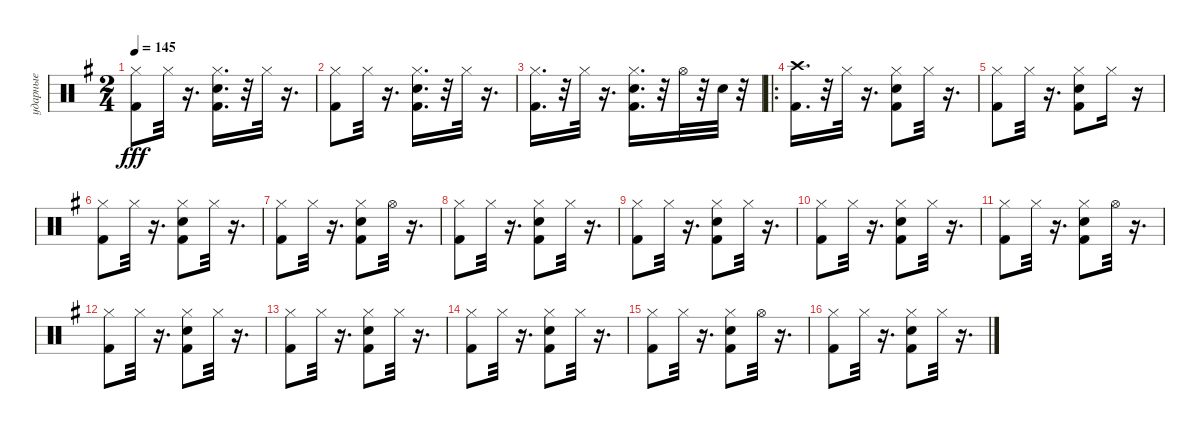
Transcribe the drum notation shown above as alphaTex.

\track ("ударные" "ударные") {instrument percussion}
\staff {score}
\articulation defaults
\ts (2 4)
\tempo 145
\clef neutral
\ks eminor
("Kick (hit) 2" "Hi-Hat (closed)").8{dy fff} "Hi-Hat (closed)".32 r.16{d} ("Kick (hit) 2" "Hi-Hat (closed)" "Snare (hit) 2").16{d} r.32 "Hi-Hat (closed)".32 r.16{d} |
("Kick (hit) 2" "Hi-Hat (closed)").8 "Hi-Hat (closed)".32 r.16{d} ("Kick (hit) 2" "Hi-Hat (closed)" "Snare (hit) 2").16{d} r.32 "Hi-Hat (closed)".32 r.16{d} |
("Kick (hit) 2" "Hi-Hat (closed)").16{d} r.32 "Hi-Hat (closed)".32 r.16{d} ("Hi-Hat (closed)" "Snare (hit) 2" "Kick (hit) 2").16{d} r.32 "Hi-Hat (open)".32 r.32 "Snare (hit) 2".32 r.32 |
\ro
("Kick (hit) 2" "Crash high (hit)").16{d} r.32 "Hi-Hat (closed)".32 r.16{d} ("Kick (hit) 2" "Snare (hit) 2" "Hi-Hat (closed)").8 "Hi-Hat (closed)".32 r.16{d} |
("Kick (hit) 2" "Hi-Hat (closed)").8 "Hi-Hat (closed)".32 r.16{d} ("Kick (hit) 2" "Hi-Hat (closed)" "Snare (hit) 2").8 "Hi-Hat (closed)".16 r.16 |
("Kick (hit) 2" "Hi-Hat (closed)").8 "Hi-Hat (closed)".32 r.16{d} ("Snare (hit) 2" "Kick (hit) 2" "Hi-Hat (closed)").8 "Hi-Hat (closed)".32 r.16{d} |
("Kick (hit) 2" "Hi-Hat (closed)").8 "Hi-Hat (closed)".32 r.16{d} ("Kick (hit) 2" "Snare (hit) 2" "Hi-Hat (closed)").8 "Hi-Hat (open)".32 r.16{d} |
("Kick (hit) 2" "Hi-Hat (closed)").8 "Hi-Hat (closed)".32 r.16{d} ("Snare (hit) 2" "Kick (hit) 2" "Hi-Hat (closed)").8 "Hi-Hat (closed)".32 r.16{d} |
("Kick (hit) 2" "Hi-Hat (closed)").8 "Hi-Hat (closed)".32 r.16{d} ("Snare (hit) 2" "Kick (hit) 2" "Hi-Hat (closed)").8 "Hi-Hat (closed)".32 r.16{d} |
("Kick (hit) 2" "Hi-Hat (closed)").8 "Hi-Hat (closed)".32 r.16{d} ("Snare (hit) 2" "Kick (hit) 2" "Hi-Hat (closed)").8 "Hi-Hat (closed)".32 r.16{d} |
("Kick (hit) 2" "Hi-Hat (closed)").8 "Hi-Hat (closed)".32 r.16{d} ("Snare (hit) 2" "Kick (hit) 2" "Hi-Hat (closed)").8 "Hi-Hat (open)".32 r.16{d} |
("Kick (hit) 2" "Hi-Hat (closed)").8 "Hi-Hat (closed)".32 r.16{d} ("Snare (hit) 2" "Kick (hit) 2" "Hi-Hat (closed)").8 "Hi-Hat (closed)".32 r.16{d} |
("Kick (hit) 2" "Hi-Hat (closed)").8 "Hi-Hat (closed)".32 r.16{d} ("Snare (hit) 2" "Kick (hit) 2" "Hi-Hat (closed)").8 "Hi-Hat (closed)".32 r.16{d} |
("Kick (hit) 2" "Hi-Hat (closed)").8 "Hi-Hat (closed)".32 r.16{d} ("Snare (hit) 2" "Kick (hit) 2" "Hi-Hat (closed)").8 "Hi-Hat (closed)".32 r.16{d} |
("Kick (hit) 2" "Hi-Hat (closed)").8 "Hi-Hat (closed)".32 r.16{d} ("Hi-Hat (closed)" "Snare (hit) 2" "Kick (hit) 2").8 "Hi-Hat (open)".32 r.16{d} |
("Kick (hit) 2" "Hi-Hat (closed)").8 "Hi-Hat (closed)".32 r.16{d} ("Snare (hit) 2" "Kick (hit) 2" "Hi-Hat (closed)").8 "Hi-Hat (closed)".32 r.16{d}
